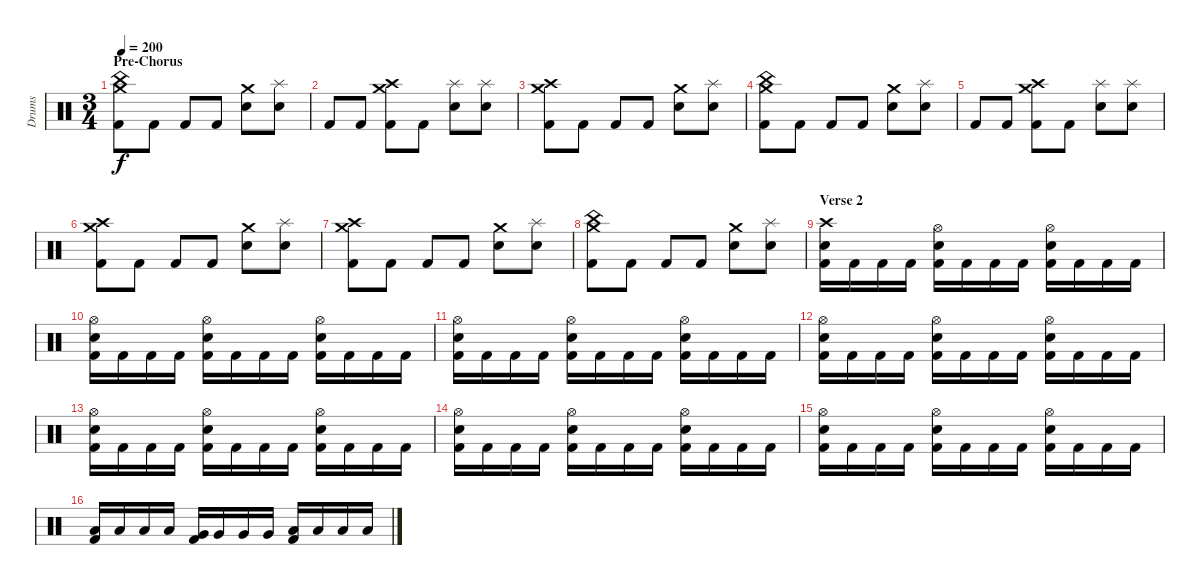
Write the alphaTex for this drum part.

\track ("Drums" "Drums") {instrument percussion}
\staff {score}
\articulation defaults
\ts (3 4)
\section ("" "Pre-Chorus")
\tempo 200
\clef neutral
\ks c
("China (hit)" "Crash medium (hit)" "Kick (hit) 2").8{dy f} "Kick (hit) 2".8 "Kick (hit) 2".8 "Kick (hit) 2".8 ("Crash medium (hit)" "Snare (hit) 2").8 ("Splash (hit)" "Snare (hit) 2").8 |
"Kick (hit) 2".8 "Kick (hit) 2".8 ("Crash medium (hit)" "Crash high (hit)" "Kick (hit) 2").8 "Kick (hit) 2".8 ("Splash (hit)" "Snare (hit) 2").8 ("Splash (hit)" "Snare (hit) 2").8 |
("Crash medium (hit)" "Crash high (hit)" "Kick (hit) 2").8 "Kick (hit) 2".8 "Kick (hit) 2".8 "Kick (hit) 2".8 ("Crash medium (hit)" "Snare (hit) 2").8 ("Splash (hit)" "Snare (hit) 2").8 |
("China (hit)" "Crash medium (hit)" "Kick (hit) 2").8 "Kick (hit) 2".8 "Kick (hit) 2".8 "Kick (hit) 2".8 ("Crash medium (hit)" "Snare (hit) 2").8 ("Splash (hit)" "Snare (hit) 2").8 |
"Kick (hit) 2".8 "Kick (hit) 2".8 ("Crash medium (hit)" "Crash high (hit)" "Kick (hit) 2").8 "Kick (hit) 2".8 ("Splash (hit)" "Snare (hit) 2").8 ("Splash (hit)" "Snare (hit) 2").8 |
("Crash medium (hit)" "Crash high (hit)" "Kick (hit) 2").8 "Kick (hit) 2".8 "Kick (hit) 2".8 "Kick (hit) 2".8 ("Crash medium (hit)" "Snare (hit) 2").8 ("Splash (hit)" "Snare (hit) 2").8 |
("Crash medium (hit)" "Crash high (hit)" "Kick (hit) 2").8 "Kick (hit) 2".8 "Kick (hit) 2".8 "Kick (hit) 2".8 ("Crash medium (hit)" "Snare (hit) 2").8 ("Splash (hit)" "Snare (hit) 2").8 |
("China (hit)" "Crash medium (hit)" "Kick (hit) 2").8 "Kick (hit) 2".8 "Kick (hit) 2".8 "Kick (hit) 2".8 ("Crash medium (hit)" "Snare (hit) 2").8 ("Splash (hit)" "Snare (hit) 2").8 |
\section ("" "Verse 2")
("Crash high (hit)" "Snare (hit) 2" "Kick (hit) 2").16 "Kick (hit) 2".16 "Kick (hit) 2".16 "Kick (hit) 2".16 ("Hi-Hat (open)" "Snare (hit) 2" "Kick (hit) 2").16 "Kick (hit) 2".16 "Kick (hit) 2".16 "Kick (hit) 2".16 ("Hi-Hat (open)" "Snare (hit) 2" "Kick (hit) 2").16 "Kick (hit) 2".16 "Kick (hit) 2".16 "Kick (hit) 2".16 |
("Hi-Hat (open)" "Snare (hit) 2" "Kick (hit) 2").16 "Kick (hit) 2".16 "Kick (hit) 2".16 "Kick (hit) 2".16 ("Hi-Hat (open)" "Snare (hit) 2" "Kick (hit) 2").16 "Kick (hit) 2".16 "Kick (hit) 2".16 "Kick (hit) 2".16 ("Hi-Hat (open)" "Snare (hit) 2" "Kick (hit) 2").16 "Kick (hit) 2".16 "Kick (hit) 2".16 "Kick (hit) 2".16 |
("Hi-Hat (open)" "Snare (hit) 2" "Kick (hit) 2").16 "Kick (hit) 2".16 "Kick (hit) 2".16 "Kick (hit) 2".16 ("Hi-Hat (open)" "Snare (hit) 2" "Kick (hit) 2").16 "Kick (hit) 2".16 "Kick (hit) 2".16 "Kick (hit) 2".16 ("Hi-Hat (open)" "Snare (hit) 2" "Kick (hit) 2").16 "Kick (hit) 2".16 "Kick (hit) 2".16 "Kick (hit) 2".16 |
("Hi-Hat (open)" "Snare (hit) 2" "Kick (hit) 2").16 "Kick (hit) 2".16 "Kick (hit) 2".16 "Kick (hit) 2".16 ("Hi-Hat (open)" "Snare (hit) 2" "Kick (hit) 2").16 "Kick (hit) 2".16 "Kick (hit) 2".16 "Kick (hit) 2".16 ("Hi-Hat (open)" "Snare (hit) 2" "Kick (hit) 2").16 "Kick (hit) 2".16 "Kick (hit) 2".16 "Kick (hit) 2".16 |
("Hi-Hat (open)" "Snare (hit) 2" "Kick (hit) 2").16 "Kick (hit) 2".16 "Kick (hit) 2".16 "Kick (hit) 2".16 ("Hi-Hat (open)" "Snare (hit) 2" "Kick (hit) 2").16 "Kick (hit) 2".16 "Kick (hit) 2".16 "Kick (hit) 2".16 ("Hi-Hat (open)" "Snare (hit) 2" "Kick (hit) 2").16 "Kick (hit) 2".16 "Kick (hit) 2".16 "Kick (hit) 2".16 |
("Hi-Hat (open)" "Snare (hit) 2" "Kick (hit) 2").16 "Kick (hit) 2".16 "Kick (hit) 2".16 "Kick (hit) 2".16 ("Hi-Hat (open)" "Snare (hit) 2" "Kick (hit) 2").16 "Kick (hit) 2".16 "Kick (hit) 2".16 "Kick (hit) 2".16 ("Hi-Hat (open)" "Snare (hit) 2" "Kick (hit) 2").16 "Kick (hit) 2".16 "Kick (hit) 2".16 "Kick (hit) 2".16 |
("Hi-Hat (open)" "Snare (hit) 2" "Kick (hit) 2").16 "Kick (hit) 2".16 "Kick (hit) 2".16 "Kick (hit) 2".16 ("Hi-Hat (open)" "Snare (hit) 2" "Kick (hit) 2").16 "Kick (hit) 2".16 "Kick (hit) 2".16 "Kick (hit) 2".16 ("Hi-Hat (open)" "Snare (hit) 2" "Kick (hit) 2").16 "Kick (hit) 2".16 "Kick (hit) 2".16 "Kick (hit) 2".16 |
("Low Tom (hit)" "Kick (hit) 2").16 "Low Tom (hit)".16 "Low Tom (hit)".16 "Low Tom (hit)".16 ("Very Low Tom (hit)" "Kick (hit) 2").16 "Very Low Tom (hit)".16 "Very Low Tom (hit)".16 "Very Low Tom (hit)".16 ("Low Floor Tom (hit)" "Kick (hit) 2").16 "Low Floor Tom (hit)".16 "Low Floor Tom (hit)".16 "Low Floor Tom (hit)".16
